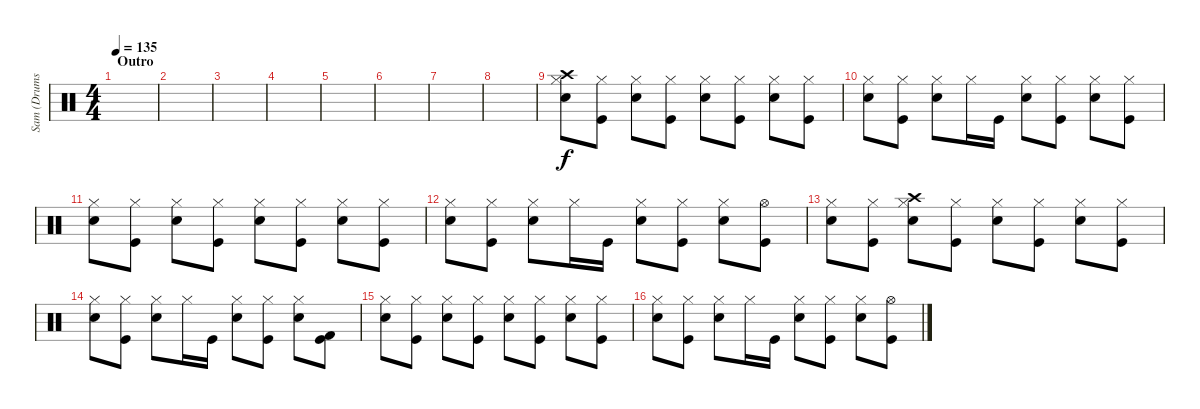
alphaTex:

\track ("Sam (Drums)" "Sam (Drums") {instrument percussion}
\staff {score}
\articulation defaults
\ts (4 4)
\section ("" "Outro")
\tempo 135
\clef neutral
\ks c
|
|
|
|
|
|
|
|
("Crash high (hit)" "Hi-Hat (closed)" "Snare (hit) 2").8 ("Hi-Hat (closed)" "Kick (hit)").8 ("Hi-Hat (closed)" "Snare (hit) 2").8 ("Hi-Hat (closed)" "Kick (hit)").8 ("Hi-Hat (closed)" "Snare (hit) 2").8 ("Hi-Hat (closed)" "Kick (hit)").8 ("Hi-Hat (closed)" "Snare (hit) 2").8 ("Hi-Hat (closed)" "Kick (hit)").8 |
("Hi-Hat (closed)" "Snare (hit) 2").8 ("Hi-Hat (closed)" "Kick (hit)").8 ("Hi-Hat (closed)" "Snare (hit) 2").8 "Hi-Hat (closed)".16 "Kick (hit)".16 ("Hi-Hat (closed)" "Snare (hit) 2").8 ("Hi-Hat (closed)" "Kick (hit)").8 ("Hi-Hat (closed)" "Snare (hit) 2").8 ("Hi-Hat (closed)" "Kick (hit)").8 |
("Hi-Hat (closed)" "Snare (hit) 2").8 ("Hi-Hat (closed)" "Kick (hit)").8 ("Hi-Hat (closed)" "Snare (hit) 2").8 ("Hi-Hat (closed)" "Kick (hit)").8 ("Hi-Hat (closed)" "Snare (hit) 2").8 ("Hi-Hat (closed)" "Kick (hit)").8 ("Hi-Hat (closed)" "Snare (hit) 2").8 ("Hi-Hat (closed)" "Kick (hit)").8 |
("Hi-Hat (closed)" "Snare (hit) 2").8 ("Hi-Hat (closed)" "Kick (hit)").8 ("Hi-Hat (closed)" "Snare (hit) 2").8 "Hi-Hat (closed)".16 "Kick (hit)".16 ("Hi-Hat (closed)" "Snare (hit) 2").8 ("Hi-Hat (closed)" "Kick (hit)").8 ("Hi-Hat (closed)" "Snare (hit) 2").8 ("Hi-Hat (open)" "Kick (hit)").8 |
("Hi-Hat (closed)" "Snare (hit) 2").8 ("Hi-Hat (closed)" "Kick (hit)").8 ("Crash high (hit)" "Hi-Hat (closed)" "Snare (hit) 2").8 ("Hi-Hat (closed)" "Kick (hit)").8 ("Hi-Hat (closed)" "Snare (hit) 2").8 ("Hi-Hat (closed)" "Kick (hit)").8 ("Hi-Hat (closed)" "Snare (hit) 2").8 ("Hi-Hat (closed)" "Kick (hit)").8 |
("Hi-Hat (closed)" "Snare (hit) 2").8 ("Hi-Hat (closed)" "Kick (hit)").8 ("Hi-Hat (closed)" "Snare (hit) 2").8 "Hi-Hat (closed)".16 "Kick (hit)".16 ("Hi-Hat (closed)" "Snare (hit) 2").8 ("Hi-Hat (closed)" "Kick (hit)").8 ("Hi-Hat (closed)" "Snare (hit) 2").8 ("Kick (hit) 2" "Kick (hit)").8 |
("Hi-Hat (closed)" "Snare (hit) 2").8 ("Hi-Hat (closed)" "Kick (hit)").8 ("Hi-Hat (closed)" "Snare (hit) 2").8 ("Hi-Hat (closed)" "Kick (hit)").8 ("Hi-Hat (closed)" "Snare (hit) 2").8 ("Hi-Hat (closed)" "Kick (hit)").8 ("Hi-Hat (closed)" "Snare (hit) 2").8 ("Hi-Hat (closed)" "Kick (hit)").8 |
("Hi-Hat (closed)" "Snare (hit) 2").8 ("Hi-Hat (closed)" "Kick (hit)").8 ("Hi-Hat (closed)" "Snare (hit) 2").8 "Hi-Hat (closed)".16 "Kick (hit)".16 ("Hi-Hat (closed)" "Snare (hit) 2").8 ("Hi-Hat (closed)" "Kick (hit)").8 ("Hi-Hat (closed)" "Snare (hit) 2").8 ("Hi-Hat (open)" "Kick (hit)").8
